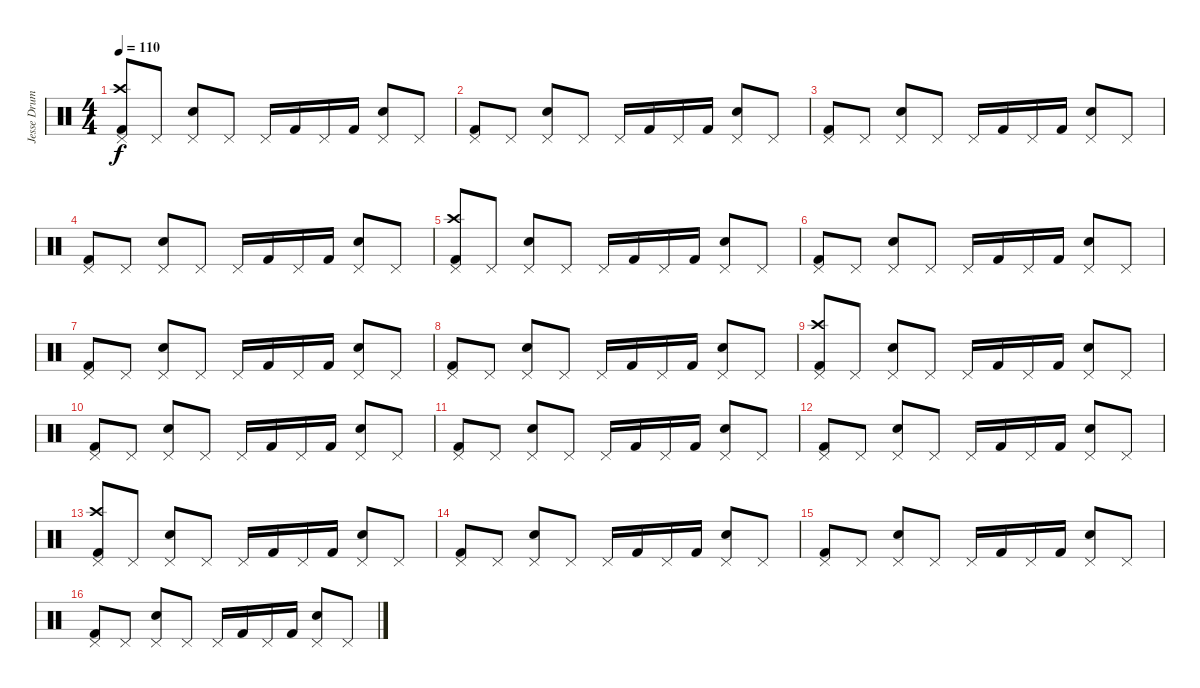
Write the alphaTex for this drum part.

\track ("Jesse Drums" "Jesse Drum") {instrument percussion}
\staff {score}
\articulation defaults
\ts (4 4)
\tempo 110
\clef neutral
\ks c
("Pedal Hi-Hat (hit)" "Crash high (hit)" "Kick (hit) 2").8{dy f} "Pedal Hi-Hat (hit)".8 ("Pedal Hi-Hat (hit)" "Electric Snare (hit)").8 "Pedal Hi-Hat (hit)".8 "Pedal Hi-Hat (hit)".16 "Kick (hit) 2".16 "Pedal Hi-Hat (hit)".16 "Kick (hit) 2".16 ("Pedal Hi-Hat (hit)" "Electric Snare (hit)").8 "Pedal Hi-Hat (hit)".8 |
("Pedal Hi-Hat (hit)" "Kick (hit) 2").8 "Pedal Hi-Hat (hit)".8 ("Pedal Hi-Hat (hit)" "Electric Snare (hit)").8 "Pedal Hi-Hat (hit)".8 "Pedal Hi-Hat (hit)".16 "Kick (hit) 2".16 "Pedal Hi-Hat (hit)".16 "Kick (hit) 2".16 ("Pedal Hi-Hat (hit)" "Electric Snare (hit)").8 "Pedal Hi-Hat (hit)".8 |
("Pedal Hi-Hat (hit)" "Kick (hit) 2").8 "Pedal Hi-Hat (hit)".8 ("Pedal Hi-Hat (hit)" "Electric Snare (hit)").8 "Pedal Hi-Hat (hit)".8 "Pedal Hi-Hat (hit)".16 "Kick (hit) 2".16 "Pedal Hi-Hat (hit)".16 "Kick (hit) 2".16 ("Pedal Hi-Hat (hit)" "Electric Snare (hit)").8 "Pedal Hi-Hat (hit)".8 |
("Pedal Hi-Hat (hit)" "Kick (hit) 2").8 "Pedal Hi-Hat (hit)".8 ("Pedal Hi-Hat (hit)" "Electric Snare (hit)").8 "Pedal Hi-Hat (hit)".8 "Pedal Hi-Hat (hit)".16 "Kick (hit) 2".16 "Pedal Hi-Hat (hit)".16 "Kick (hit) 2".16 ("Pedal Hi-Hat (hit)" "Electric Snare (hit)").8 "Pedal Hi-Hat (hit)".8 |
("Pedal Hi-Hat (hit)" "Crash high (hit)" "Kick (hit) 2").8 "Pedal Hi-Hat (hit)".8 ("Pedal Hi-Hat (hit)" "Electric Snare (hit)").8 "Pedal Hi-Hat (hit)".8 "Pedal Hi-Hat (hit)".16 "Kick (hit) 2".16 "Pedal Hi-Hat (hit)".16 "Kick (hit) 2".16 ("Pedal Hi-Hat (hit)" "Electric Snare (hit)").8 "Pedal Hi-Hat (hit)".8 |
("Pedal Hi-Hat (hit)" "Kick (hit) 2").8 "Pedal Hi-Hat (hit)".8 ("Pedal Hi-Hat (hit)" "Electric Snare (hit)").8 "Pedal Hi-Hat (hit)".8 "Pedal Hi-Hat (hit)".16 "Kick (hit) 2".16 "Pedal Hi-Hat (hit)".16 "Kick (hit) 2".16 ("Pedal Hi-Hat (hit)" "Electric Snare (hit)").8 "Pedal Hi-Hat (hit)".8 |
("Pedal Hi-Hat (hit)" "Kick (hit) 2").8 "Pedal Hi-Hat (hit)".8 ("Pedal Hi-Hat (hit)" "Electric Snare (hit)").8 "Pedal Hi-Hat (hit)".8 "Pedal Hi-Hat (hit)".16 "Kick (hit) 2".16 "Pedal Hi-Hat (hit)".16 "Kick (hit) 2".16 ("Pedal Hi-Hat (hit)" "Electric Snare (hit)").8 "Pedal Hi-Hat (hit)".8 |
("Pedal Hi-Hat (hit)" "Kick (hit) 2").8 "Pedal Hi-Hat (hit)".8 ("Pedal Hi-Hat (hit)" "Electric Snare (hit)").8 "Pedal Hi-Hat (hit)".8 "Pedal Hi-Hat (hit)".16 "Kick (hit) 2".16 "Pedal Hi-Hat (hit)".16 "Kick (hit) 2".16 ("Pedal Hi-Hat (hit)" "Electric Snare (hit)").8 "Pedal Hi-Hat (hit)".8 |
("Pedal Hi-Hat (hit)" "Crash high (hit)" "Kick (hit) 2").8 "Pedal Hi-Hat (hit)".8 ("Pedal Hi-Hat (hit)" "Electric Snare (hit)").8 "Pedal Hi-Hat (hit)".8 "Pedal Hi-Hat (hit)".16 "Kick (hit) 2".16 "Pedal Hi-Hat (hit)".16 "Kick (hit) 2".16 ("Pedal Hi-Hat (hit)" "Electric Snare (hit)").8 "Pedal Hi-Hat (hit)".8 |
("Pedal Hi-Hat (hit)" "Kick (hit) 2").8 "Pedal Hi-Hat (hit)".8 ("Pedal Hi-Hat (hit)" "Electric Snare (hit)").8 "Pedal Hi-Hat (hit)".8 "Pedal Hi-Hat (hit)".16 "Kick (hit) 2".16 "Pedal Hi-Hat (hit)".16 "Kick (hit) 2".16 ("Pedal Hi-Hat (hit)" "Electric Snare (hit)").8 "Pedal Hi-Hat (hit)".8 |
("Pedal Hi-Hat (hit)" "Kick (hit) 2").8 "Pedal Hi-Hat (hit)".8 ("Pedal Hi-Hat (hit)" "Electric Snare (hit)").8 "Pedal Hi-Hat (hit)".8 "Pedal Hi-Hat (hit)".16 "Kick (hit) 2".16 "Pedal Hi-Hat (hit)".16 "Kick (hit) 2".16 ("Pedal Hi-Hat (hit)" "Electric Snare (hit)").8 "Pedal Hi-Hat (hit)".8 |
("Pedal Hi-Hat (hit)" "Kick (hit) 2").8 "Pedal Hi-Hat (hit)".8 ("Pedal Hi-Hat (hit)" "Electric Snare (hit)").8 "Pedal Hi-Hat (hit)".8 "Pedal Hi-Hat (hit)".16 "Kick (hit) 2".16 "Pedal Hi-Hat (hit)".16 "Kick (hit) 2".16 ("Pedal Hi-Hat (hit)" "Electric Snare (hit)").8 "Pedal Hi-Hat (hit)".8 |
("Pedal Hi-Hat (hit)" "Crash high (hit)" "Kick (hit) 2").8 "Pedal Hi-Hat (hit)".8 ("Pedal Hi-Hat (hit)" "Electric Snare (hit)").8 "Pedal Hi-Hat (hit)".8 "Pedal Hi-Hat (hit)".16 "Kick (hit) 2".16 "Pedal Hi-Hat (hit)".16 "Kick (hit) 2".16 ("Pedal Hi-Hat (hit)" "Electric Snare (hit)").8 "Pedal Hi-Hat (hit)".8 |
("Pedal Hi-Hat (hit)" "Kick (hit) 2").8 "Pedal Hi-Hat (hit)".8 ("Pedal Hi-Hat (hit)" "Electric Snare (hit)").8 "Pedal Hi-Hat (hit)".8 "Pedal Hi-Hat (hit)".16 "Kick (hit) 2".16 "Pedal Hi-Hat (hit)".16 "Kick (hit) 2".16 ("Pedal Hi-Hat (hit)" "Electric Snare (hit)").8 "Pedal Hi-Hat (hit)".8 |
("Pedal Hi-Hat (hit)" "Kick (hit) 2").8 "Pedal Hi-Hat (hit)".8 ("Pedal Hi-Hat (hit)" "Electric Snare (hit)").8 "Pedal Hi-Hat (hit)".8 "Pedal Hi-Hat (hit)".16 "Kick (hit) 2".16 "Pedal Hi-Hat (hit)".16 "Kick (hit) 2".16 ("Pedal Hi-Hat (hit)" "Electric Snare (hit)").8 "Pedal Hi-Hat (hit)".8 |
("Pedal Hi-Hat (hit)" "Kick (hit) 2").8 "Pedal Hi-Hat (hit)".8 ("Pedal Hi-Hat (hit)" "Electric Snare (hit)").8 "Pedal Hi-Hat (hit)".8 "Pedal Hi-Hat (hit)".16 "Kick (hit) 2".16 "Pedal Hi-Hat (hit)".16 "Kick (hit) 2".16 ("Pedal Hi-Hat (hit)" "Electric Snare (hit)").8 "Pedal Hi-Hat (hit)".8
